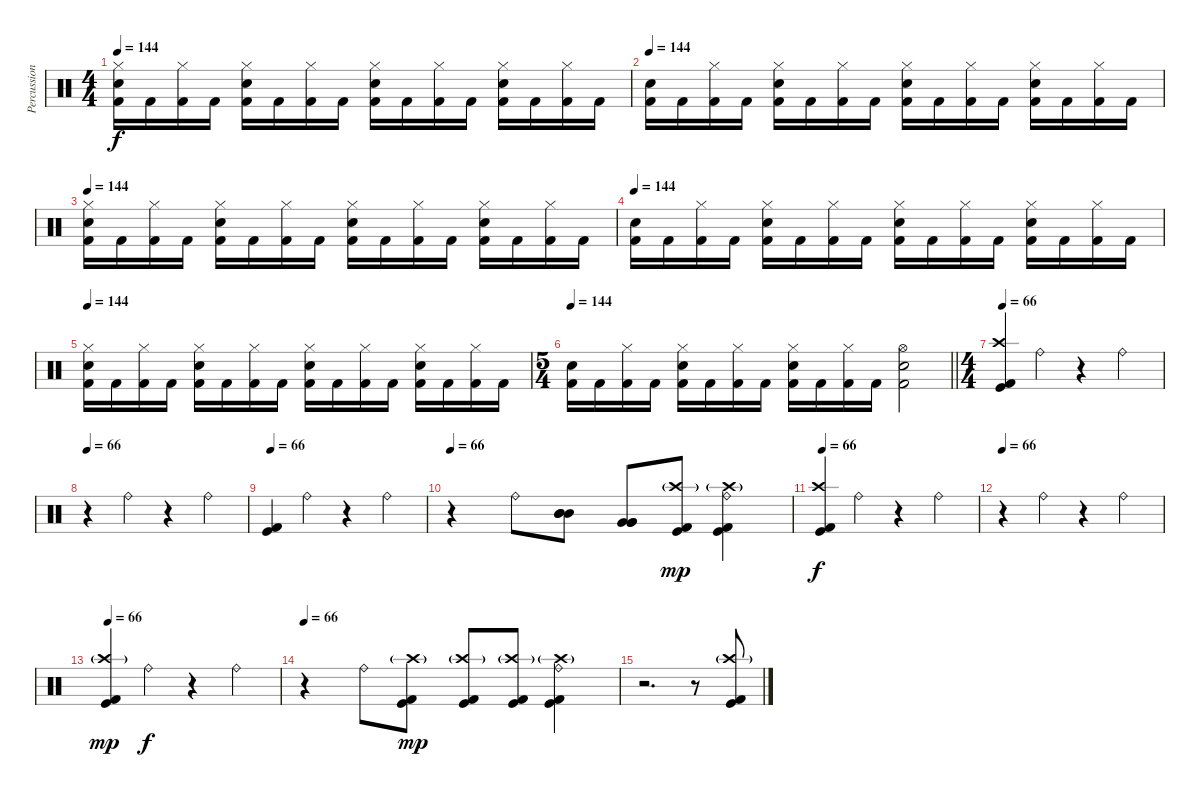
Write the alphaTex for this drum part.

\track ("Percussions" "Percussion") {instrument percussion}
\staff {score}
\articulation defaults
\ts (4 4)
\tempo 144
\clef neutral
\ks c
("Hi-Hat (closed)" "Electric Snare (hit)" "Kick (hit) 2").16{dy f} "Kick (hit) 2".16 ("Hi-Hat (closed)" "Kick (hit) 2").16 "Kick (hit) 2".16 ("Hi-Hat (closed)" "Electric Snare (hit)" "Kick (hit) 2").16 "Kick (hit) 2".16 ("Hi-Hat (closed)" "Kick (hit) 2").16 "Kick (hit) 2".16 ("Hi-Hat (closed)" "Electric Snare (hit)" "Kick (hit) 2").16 "Kick (hit) 2".16 ("Hi-Hat (closed)" "Kick (hit) 2").16 "Kick (hit) 2".16 ("Hi-Hat (closed)" "Electric Snare (hit)" "Kick (hit) 2").16 "Kick (hit) 2".16 ("Hi-Hat (closed)" "Kick (hit) 2").16 "Kick (hit) 2".16 |
\tempo 144
("Electric Snare (hit)" "Kick (hit) 2").16 "Kick (hit) 2".16 ("Hi-Hat (closed)" "Kick (hit) 2").16 "Kick (hit) 2".16 ("Hi-Hat (closed)" "Electric Snare (hit)" "Kick (hit) 2").16 "Kick (hit) 2".16 ("Hi-Hat (closed)" "Kick (hit) 2").16 "Kick (hit) 2".16 ("Hi-Hat (closed)" "Electric Snare (hit)" "Kick (hit) 2").16 "Kick (hit) 2".16 ("Hi-Hat (closed)" "Kick (hit) 2").16 "Kick (hit) 2".16 ("Hi-Hat (closed)" "Electric Snare (hit)" "Kick (hit) 2").16 "Kick (hit) 2".16 ("Hi-Hat (closed)" "Kick (hit) 2").16 "Kick (hit) 2".16 |
\tempo 144
("Hi-Hat (closed)" "Electric Snare (hit)" "Kick (hit) 2").16 "Kick (hit) 2".16 ("Hi-Hat (closed)" "Kick (hit) 2").16 "Kick (hit) 2".16 ("Hi-Hat (closed)" "Electric Snare (hit)" "Kick (hit) 2").16 "Kick (hit) 2".16 ("Hi-Hat (closed)" "Kick (hit) 2").16 "Kick (hit) 2".16 ("Hi-Hat (closed)" "Electric Snare (hit)" "Kick (hit) 2").16 "Kick (hit) 2".16 ("Hi-Hat (closed)" "Kick (hit) 2").16 "Kick (hit) 2".16 ("Hi-Hat (closed)" "Electric Snare (hit)" "Kick (hit) 2").16 "Kick (hit) 2".16 ("Hi-Hat (closed)" "Kick (hit) 2").16 "Kick (hit) 2".16 |
\tempo 144
("Electric Snare (hit)" "Kick (hit) 2").16 "Kick (hit) 2".16 ("Hi-Hat (closed)" "Kick (hit) 2").16 "Kick (hit) 2".16 ("Hi-Hat (closed)" "Electric Snare (hit)" "Kick (hit) 2").16 "Kick (hit) 2".16 ("Hi-Hat (closed)" "Kick (hit) 2").16 "Kick (hit) 2".16 ("Hi-Hat (closed)" "Electric Snare (hit)" "Kick (hit) 2").16 "Kick (hit) 2".16 ("Hi-Hat (closed)" "Kick (hit) 2").16 "Kick (hit) 2".16 ("Hi-Hat (closed)" "Electric Snare (hit)" "Kick (hit) 2").16 "Kick (hit) 2".16 ("Hi-Hat (closed)" "Kick (hit) 2").16 "Kick (hit) 2".16 |
\tempo 144
("Hi-Hat (closed)" "Electric Snare (hit)" "Kick (hit) 2").16 "Kick (hit) 2".16 ("Hi-Hat (closed)" "Kick (hit) 2").16 "Kick (hit) 2".16 ("Hi-Hat (closed)" "Electric Snare (hit)" "Kick (hit) 2").16 "Kick (hit) 2".16 ("Hi-Hat (closed)" "Kick (hit) 2").16 "Kick (hit) 2".16 ("Hi-Hat (closed)" "Electric Snare (hit)" "Kick (hit) 2").16 "Kick (hit) 2".16 ("Hi-Hat (closed)" "Kick (hit) 2").16 "Kick (hit) 2".16 ("Hi-Hat (closed)" "Electric Snare (hit)" "Kick (hit) 2").16 "Kick (hit) 2".16 ("Hi-Hat (closed)" "Kick (hit) 2").16 "Kick (hit) 2".16 |
\ts (5 4)
\tempo 144
\barLineRight lightlight
("Electric Snare (hit)" "Kick (hit) 2").16 "Kick (hit) 2".16 ("Hi-Hat (closed)" "Kick (hit) 2").16 "Kick (hit) 2".16 ("Hi-Hat (closed)" "Electric Snare (hit)" "Kick (hit) 2").16 "Kick (hit) 2".16 ("Hi-Hat (closed)" "Kick (hit) 2").16 "Kick (hit) 2".16 ("Hi-Hat (closed)" "Electric Snare (hit)" "Kick (hit) 2").16 "Kick (hit) 2".16 ("Hi-Hat (closed)" "Kick (hit) 2").16 "Kick (hit) 2".16 ("Hi-Hat (open)" "Electric Snare (hit)" "Kick (hit) 2").2 |
\ts (4 4)
\tempo 66
("Crash high (hit)" "Kick (hit)" "Kick (hit) 2").4 "Ride (bell)".4 r.4 "Ride (bell)".4 |
\tempo 66
r.4 "Ride (bell)".4 r.4 "Ride (bell)".4 |
\tempo 66
("Kick (hit)" "Kick (hit) 2").4 "Ride (bell)".4 r.4 "Ride (bell)".4 |
\tempo 66
r.4 "Ride (bell)".8 ("Mid Tom (hit)" "Mid Tom (hit)" "Mid Tom (hit)").8 ("Very Low Tom (hit)" "Very Low Tom (hit)" "Very Low Tom (hit)").8 ("Crash high (hit)"{g} "Kick (hit)" "Kick (hit) 2").8{dy mp} ("Ride (bell)" "Crash high (hit)"{g} "Kick (hit)" "Kick (hit) 2").4 |
\tempo 66
("Crash high (hit)" "Kick (hit)" "Kick (hit) 2").4{dy f} "Ride (bell)".4 r.4 "Ride (bell)".4 |
\tempo 66
r.4 "Ride (bell)".4 r.4 "Ride (bell)".4 |
\tempo 66
("Crash high (hit)"{g} "Kick (hit)" "Kick (hit) 2").4{dy mp} "Ride (bell)".4{dy f} r.4 "Ride (bell)".4 |
\tempo 66
r.4 "Ride (bell)".8 ("Crash high (hit)"{g} "Kick (hit)" "Kick (hit) 2").8{dy mp} ("Crash high (hit)"{g} "Kick (hit)" "Kick (hit) 2").8 ("Crash high (hit)"{g} "Kick (hit)" "Kick (hit) 2").8 ("Ride (bell)" "Crash high (hit)"{g} "Kick (hit)" "Kick (hit) 2").4 |
r.2{d} r.8 ("Crash high (hit)"{g} "Kick (hit)" "Kick (hit) 2").8
